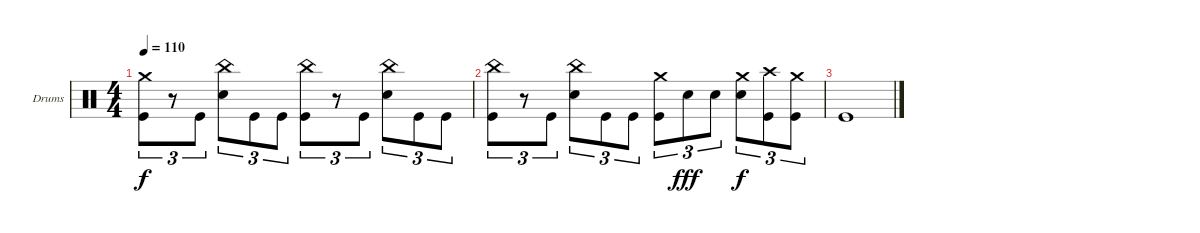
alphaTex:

\bracketExtendMode groupsimilarinstruments
\firstSystemTrackNameOrientation horizontal
\otherSystemsTrackNameOrientation horizontal
\track ("Drumkit" "Drums") {instrument percussion}
\staff {score}
\articulation defaults
\ts (4 4)
\tempo 110
\clef neutral
\ks c
("Crash medium (hit)" "Kick (hit)").8{tu (3 2) dy f} r.8{tu (3 2)} "Kick (hit)".8{tu (3 2)} ("China (hit)" "Snare (hit) 2").8{tu (3 2)} "Kick (hit)".8{tu (3 2)} "Kick (hit)".8{tu (3 2)} ("China (hit)" "Kick (hit)").8{tu (3 2)} r.8{tu (3 2)} "Kick (hit)".8{tu (3 2)} ("China (hit)" "Snare (hit) 2").8{tu (3 2)} "Kick (hit)".8{tu (3 2)} "Kick (hit)".8{tu (3 2)} |
("China (hit)" "Kick (hit)").8{tu (3 2)} r.8{tu (3 2)} "Kick (hit)".8{tu (3 2)} ("China (hit)" "Snare (hit) 2").8{tu (3 2)} "Kick (hit)".8{tu (3 2)} "Kick (hit)".8{tu (3 2)} ("Crash medium (hit)" "Kick (hit)").8{tu (3 2)} "Snare (hit) 2".8{tu (3 2) dy fff} "Snare (hit) 2".8{tu (3 2)} ("Crash medium (hit)" "Snare (hit) 2").8{tu (3 2) dy f} ("Crash high (hit)" "Kick (hit)").8{tu (3 2)} ("Crash medium (hit)" "Kick (hit)").8{tu (3 2)} |
"Kick (hit)".1
